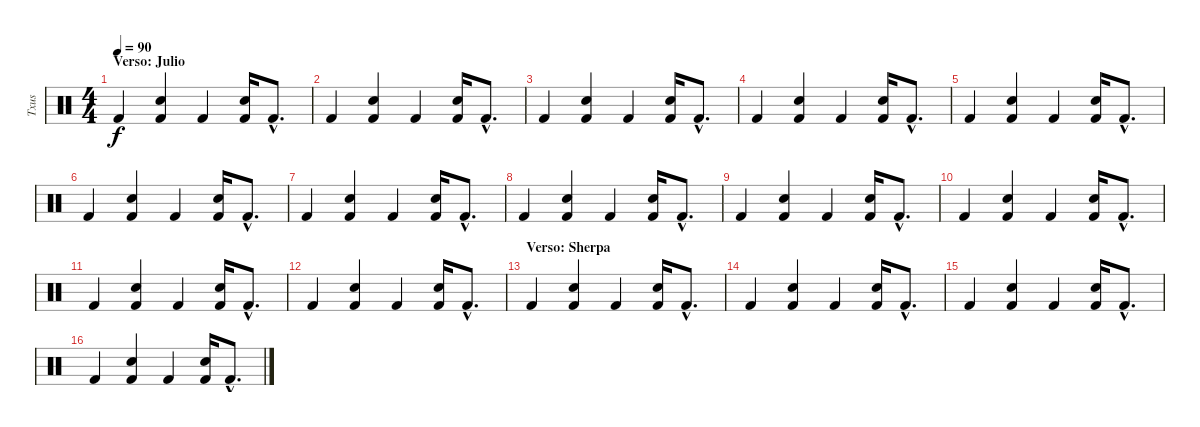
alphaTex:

\track ("Txus" "Txus") {instrument percussion}
\staff {score}
\articulation defaults
\ts (4 4)
\section ("" "Verso: Julio")
\tempo 90
\clef neutral
\ks c "Kick (hit) 2".4{dy f}
("Kick (hit) 2" "Electric Snare (hit)").4 "Kick (hit) 2".4 ("Kick (hit) 2" "Electric Snare (hit)").16 "Kick (hit) 2"{hac}.8{d} |
"Kick (hit) 2".4 ("Kick (hit) 2" "Electric Snare (hit)").4 "Kick (hit) 2".4 ("Kick (hit) 2" "Electric Snare (hit)").16 "Kick (hit) 2"{hac}.8{d} |
"Kick (hit) 2".4 ("Kick (hit) 2" "Electric Snare (hit)").4 "Kick (hit) 2".4 ("Kick (hit) 2" "Electric Snare (hit)").16 "Kick (hit) 2"{hac}.8{d} |
"Kick (hit) 2".4 ("Kick (hit) 2" "Electric Snare (hit)").4 "Kick (hit) 2".4 ("Kick (hit) 2" "Electric Snare (hit)").16 "Kick (hit) 2"{hac}.8{d} |
"Kick (hit) 2".4 ("Kick (hit) 2" "Electric Snare (hit)").4 "Kick (hit) 2".4 ("Kick (hit) 2" "Electric Snare (hit)").16 "Kick (hit) 2"{hac}.8{d} |
"Kick (hit) 2".4 ("Kick (hit) 2" "Electric Snare (hit)").4 "Kick (hit) 2".4 ("Kick (hit) 2" "Electric Snare (hit)").16 "Kick (hit) 2"{hac}.8{d} |
"Kick (hit) 2".4 ("Kick (hit) 2" "Electric Snare (hit)").4 "Kick (hit) 2".4 ("Kick (hit) 2" "Electric Snare (hit)").16 "Kick (hit) 2"{hac}.8{d} |
"Kick (hit) 2".4 ("Kick (hit) 2" "Electric Snare (hit)").4 "Kick (hit) 2".4 ("Kick (hit) 2" "Electric Snare (hit)").16 "Kick (hit) 2"{hac}.8{d} |
"Kick (hit) 2".4 ("Kick (hit) 2" "Electric Snare (hit)").4 "Kick (hit) 2".4 ("Kick (hit) 2" "Electric Snare (hit)").16 "Kick (hit) 2"{hac}.8{d} |
"Kick (hit) 2".4 ("Kick (hit) 2" "Electric Snare (hit)").4 "Kick (hit) 2".4 ("Kick (hit) 2" "Electric Snare (hit)").16 "Kick (hit) 2"{hac}.8{d} |
"Kick (hit) 2".4 ("Kick (hit) 2" "Electric Snare (hit)").4 "Kick (hit) 2".4 ("Kick (hit) 2" "Electric Snare (hit)").16 "Kick (hit) 2"{hac}.8{d} |
"Kick (hit) 2".4 ("Kick (hit) 2" "Electric Snare (hit)").4 "Kick (hit) 2".4 ("Kick (hit) 2" "Electric Snare (hit)").16 "Kick (hit) 2"{hac}.8{d} |
\section ("" "Verso: Sherpa")
"Kick (hit) 2".4 ("Kick (hit) 2" "Electric Snare (hit)").4 "Kick (hit) 2".4 ("Kick (hit) 2" "Electric Snare (hit)").16 "Kick (hit) 2"{hac}.8{d} |
"Kick (hit) 2".4 ("Kick (hit) 2" "Electric Snare (hit)").4 "Kick (hit) 2".4 ("Kick (hit) 2" "Electric Snare (hit)").16 "Kick (hit) 2"{hac}.8{d} |
"Kick (hit) 2".4 ("Kick (hit) 2" "Electric Snare (hit)").4 "Kick (hit) 2".4 ("Kick (hit) 2" "Electric Snare (hit)").16 "Kick (hit) 2"{hac}.8{d} |
"Kick (hit) 2".4 ("Kick (hit) 2" "Electric Snare (hit)").4 "Kick (hit) 2".4 ("Kick (hit) 2" "Electric Snare (hit)").16 "Kick (hit) 2"{hac}.8{d}
